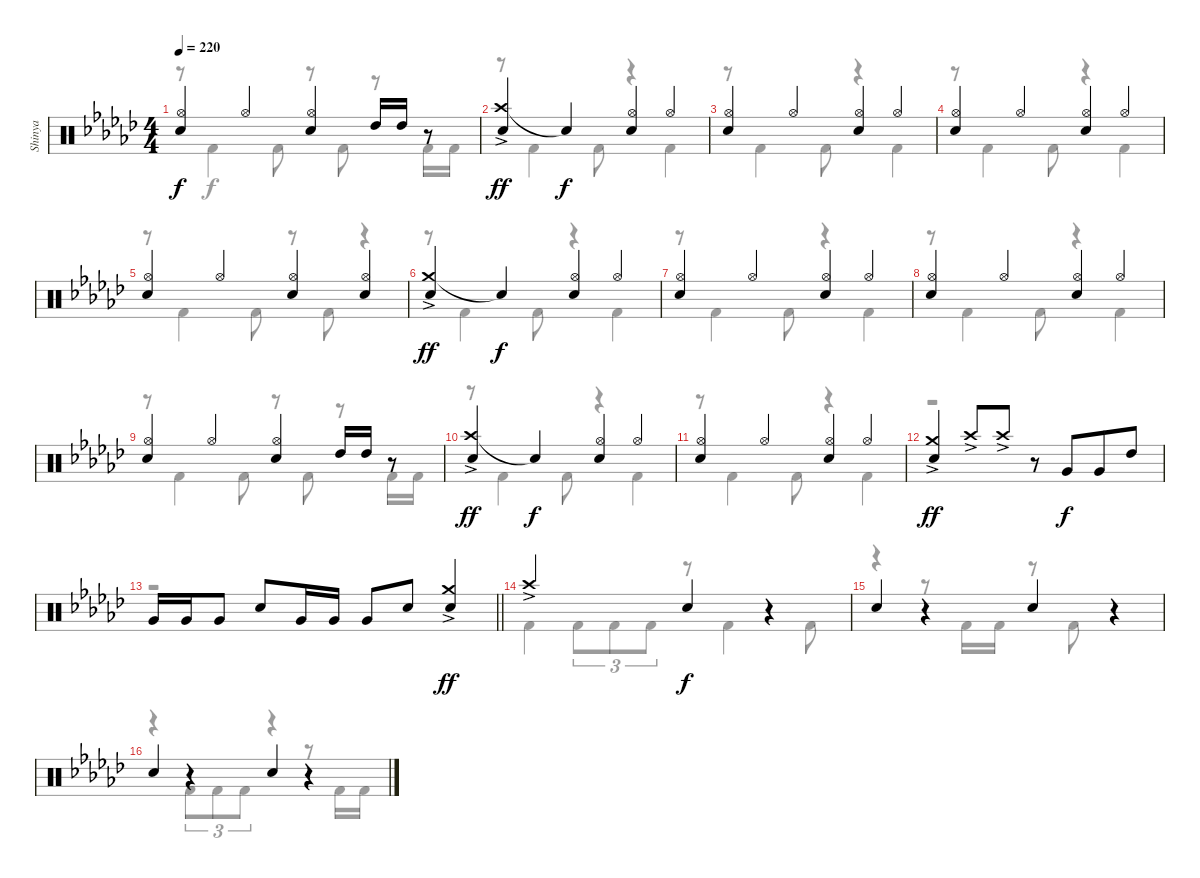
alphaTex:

\track ("Shinya" "Shinya") {instrument percussion}
\staff {score}
\articulation defaults
\voice
\ts (4 4)
\tempo 220
\clef neutral
\ks ebminor
("Hi-Hat (open)" "Snare (hit) 2").4{dy f} "Hi-Hat (open)".4 ("Hi-Hat (open)" "Snare (hit) 2").4 "High Tom (hit)".16 "High Tom (hit)".16 r.8 |
("Crash high (hit)"{ac} "Snare (hit) 2").4{dy ff} "Snare (hit)"{t}.4{dy f} ("Hi-Hat (open)" "Snare (hit) 2").4 "Hi-Hat (open)".4 |
("Hi-Hat (open)" "Snare (hit) 2").4 "Hi-Hat (open)".4 ("Hi-Hat (open)" "Snare (hit) 2").4 "Hi-Hat (open)".4 |
("Hi-Hat (open)" "Snare (hit) 2").4 "Hi-Hat (open)".4 ("Hi-Hat (open)" "Snare (hit) 2").4 "Hi-Hat (open)".4 |
("Hi-Hat (open)" "Snare (hit) 2").4 "Hi-Hat (open)".4 ("Hi-Hat (open)" "Snare (hit) 2").4 ("Hi-Hat (open)" "Snare (hit) 2").4 |
("Crash medium (hit)"{ac} "Snare (hit) 2").4{dy ff} "Snare (hit)"{t}.4{dy f} ("Hi-Hat (open)" "Snare (hit) 2").4 "Hi-Hat (open)".4 |
("Hi-Hat (open)" "Snare (hit) 2").4 "Hi-Hat (open)".4 ("Hi-Hat (open)" "Snare (hit) 2").4 "Hi-Hat (open)".4 |
("Hi-Hat (open)" "Snare (hit) 2").4 "Hi-Hat (open)".4 ("Hi-Hat (open)" "Snare (hit) 2").4 "Hi-Hat (open)".4 |
("Hi-Hat (open)" "Snare (hit) 2").4 "Hi-Hat (open)".4 ("Hi-Hat (open)" "Snare (hit) 2").4 "High Tom (hit)".16 "High Tom (hit)".16 r.8 |
("Crash high (hit)"{ac} "Snare (hit) 2").4{dy ff} "Snare (hit)"{t}.4{dy f} ("Hi-Hat (open)" "Snare (hit) 2").4 "Hi-Hat (open)".4 |
("Hi-Hat (open)" "Snare (hit) 2").4 "Hi-Hat (open)".4 ("Hi-Hat (open)" "Snare (hit) 2").4 "Hi-Hat (open)".4 |
("Crash medium (hit)"{ac} "Snare (hit) 2").4{dy ff} "Crash high (hit)"{ac}.8 "Crash high (hit)"{ac}.8 r.8 "Very Low Tom (hit)".8{dy f beam merge} "Very Low Tom (hit)".8 "High Tom (hit)".8 |
\barLineRight lightlight "Very Low Tom (hit)".16 "Very Low Tom (hit)".16 "Very Low Tom (hit)".8 "Snare (hit) 2".8 "Very Low Tom (hit)".16 "Very Low Tom (hit)".16 "Very Low Tom (hit)".8 "Snare (hit) 2".8
("Crash medium (hit)"{ac} "Snare (hit) 2").4{dy ff} |
\section ("" "")
"Crash high (hit)"{ac}.2 "Snare (hit) 2".4{dy f} r.4 |
"Snare (hit) 2".4 r.4 "Snare (hit) 2".4 r.4 |
"Snare (hit) 2".4 r.4 "Snare (hit) 2".4 r.4
\voice
\clef neutral
\ottava regular
\simile none
\ks ebminor
r.8{dy f} "Kick (hit) 2".4 "Kick (hit) 2".8 r.8 "Kick (hit) 2".8 r.8 "Kick (hit) 2".16 "Kick (hit) 2".16 |
r.8 "Kick (hit) 2".4 "Kick (hit) 2".8 r.4 "Kick (hit) 2".4 |
r.8 "Kick (hit) 2".4 "Kick (hit) 2".8 r.4 "Kick (hit) 2".4 |
r.8 "Kick (hit) 2".4 "Kick (hit) 2".8 r.4 "Kick (hit) 2".4 |
r.8 "Kick (hit) 2".4 "Kick (hit) 2".8 r.8 "Kick (hit) 2".8 r.4 |
r.8 "Kick (hit) 2".4 "Kick (hit) 2".8 r.4 "Kick (hit) 2".4 |
r.8 "Kick (hit) 2".4 "Kick (hit) 2".8 r.4 "Kick (hit) 2".4 |
r.8 "Kick (hit) 2".4 "Kick (hit) 2".8 r.4 "Kick (hit) 2".4 |
r.8 "Kick (hit) 2".4 "Kick (hit) 2".8 r.8 "Kick (hit) 2".8 r.8 "Kick (hit) 2".16 "Kick (hit) 2".16 |
r.8 "Kick (hit) 2".4 "Kick (hit) 2".8 r.4 "Kick (hit) 2".4 |
r.8 "Kick (hit) 2".4 "Kick (hit) 2".8 r.4 "Kick (hit) 2".4 |
r.1 |
\barLineRight lightlight
r.1 |
"Kick (hit) 2".4 "Kick (hit) 2".8{tu (3 2)} "Kick (hit) 2".8{tu (3 2)} "Kick (hit) 2".8{tu (3 2)} r.8 "Kick (hit) 2".4 "Kick (hit) 2".8 |
r.4 r.8 "Kick (hit) 2".16 "Kick (hit) 2".16 r.8 "Kick (hit) 2".8 r.4 |
r.4 "Kick (hit) 2".8{tu (3 2)} "Kick (hit) 2".8{tu (3 2)} "Kick (hit) 2".8{tu (3 2)} r.4 r.8 "Kick (hit) 2".16 "Kick (hit) 2".16
